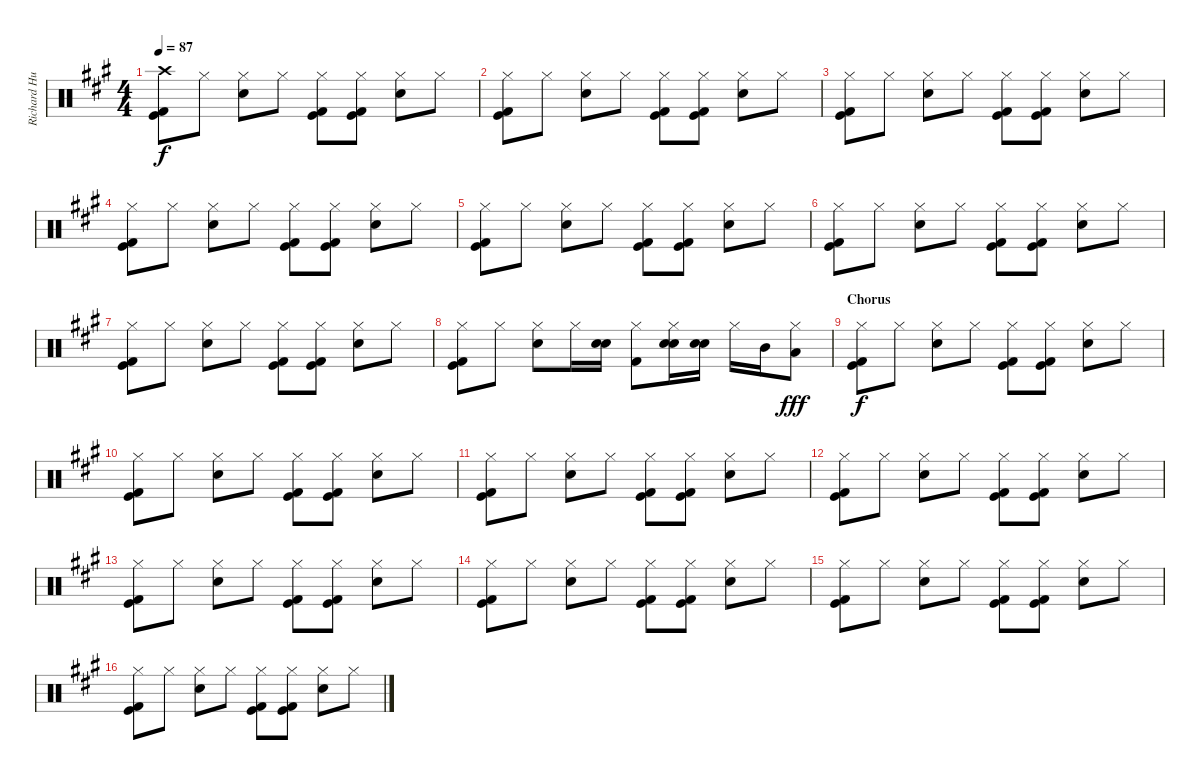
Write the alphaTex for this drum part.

\track ("Richard Hughes (Drums)" "Richard Hu") {instrument percussion}
\staff {score}
\articulation defaults
\ts (4 4)
\tempo 87
\clef neutral
\ks a
("Crash high (hit)" "Kick (hit) 2" "Kick (hit)").8{dy f} "Hi-Hat (closed)".8 ("Hi-Hat (closed)" "Snare (hit) 2").8 "Hi-Hat (closed)".8 ("Hi-Hat (closed)" "Kick (hit) 2" "Kick (hit)").8 ("Hi-Hat (closed)" "Kick (hit) 2" "Kick (hit)").8 ("Hi-Hat (closed)" "Snare (hit) 2").8 "Hi-Hat (closed)".8 |
("Hi-Hat (closed)" "Kick (hit) 2" "Kick (hit)").8 "Hi-Hat (closed)".8 ("Hi-Hat (closed)" "Snare (hit) 2").8 "Hi-Hat (closed)".8 ("Hi-Hat (closed)" "Kick (hit) 2" "Kick (hit)").8 ("Hi-Hat (closed)" "Kick (hit) 2" "Kick (hit)").8 ("Hi-Hat (closed)" "Snare (hit) 2").8 "Hi-Hat (closed)".8 |
("Hi-Hat (closed)" "Kick (hit) 2" "Kick (hit)").8 "Hi-Hat (closed)".8 ("Hi-Hat (closed)" "Snare (hit) 2").8 "Hi-Hat (closed)".8 ("Hi-Hat (closed)" "Kick (hit) 2" "Kick (hit)").8 ("Hi-Hat (closed)" "Kick (hit) 2" "Kick (hit)").8 ("Hi-Hat (closed)" "Snare (hit) 2").8 "Hi-Hat (closed)".8 |
("Hi-Hat (closed)" "Kick (hit) 2" "Kick (hit)").8 "Hi-Hat (closed)".8 ("Hi-Hat (closed)" "Snare (hit) 2").8 "Hi-Hat (closed)".8 ("Hi-Hat (closed)" "Kick (hit) 2" "Kick (hit)").8 ("Hi-Hat (closed)" "Kick (hit) 2" "Kick (hit)").8 ("Hi-Hat (closed)" "Snare (hit) 2").8 "Hi-Hat (closed)".8 |
("Hi-Hat (closed)" "Kick (hit) 2" "Kick (hit)").8 "Hi-Hat (closed)".8 ("Hi-Hat (closed)" "Snare (hit) 2").8 "Hi-Hat (closed)".8 ("Hi-Hat (closed)" "Kick (hit) 2" "Kick (hit)").8 ("Hi-Hat (closed)" "Kick (hit) 2" "Kick (hit)").8 ("Hi-Hat (closed)" "Snare (hit) 2").8 "Hi-Hat (closed)".8 |
("Hi-Hat (closed)" "Kick (hit) 2" "Kick (hit)").8 "Hi-Hat (closed)".8 ("Hi-Hat (closed)" "Snare (hit) 2").8 "Hi-Hat (closed)".8 ("Hi-Hat (closed)" "Kick (hit) 2" "Kick (hit)").8 ("Hi-Hat (closed)" "Kick (hit) 2" "Kick (hit)").8 ("Hi-Hat (closed)" "Snare (hit) 2").8 "Hi-Hat (closed)".8 |
("Hi-Hat (closed)" "Kick (hit) 2" "Kick (hit)").8 "Hi-Hat (closed)".8 ("Hi-Hat (closed)" "Snare (hit) 2").8 "Hi-Hat (closed)".8 ("Hi-Hat (closed)" "Kick (hit) 2" "Kick (hit)").8 ("Hi-Hat (closed)" "Kick (hit) 2" "Kick (hit)").8 ("Hi-Hat (closed)" "Snare (hit) 2").8 "Hi-Hat (closed)".8 |
("Hi-Hat (closed)" "Kick (hit) 2" "Kick (hit)").8 "Hi-Hat (closed)".8 ("Hi-Hat (closed)" "Snare (hit) 2").8 "Hi-Hat (closed)".16 ("Snare (hit) 2" "Electric Snare (hit)").16 ("Hi-Hat (closed)" "Kick (hit) 2").8 ("Hi-Hat (closed)" "Snare (hit) 2" "Electric Snare (hit)").16 ("Snare (hit) 2" "Electric Snare (hit)").16 "Hi-Hat (closed)".16 "Mid Tom (hit)".16 ("Hi-Hat (closed)" "Low Tom (hit)").8{dy fff} |
\section ("" "Chorus")
("Hi-Hat (closed)" "Kick (hit) 2" "Kick (hit)").8{dy f} "Hi-Hat (closed)".8 ("Hi-Hat (closed)" "Snare (hit) 2").8 "Hi-Hat (closed)".8 ("Hi-Hat (closed)" "Kick (hit) 2" "Kick (hit)").8 ("Hi-Hat (closed)" "Kick (hit) 2" "Kick (hit)").8 ("Hi-Hat (closed)" "Snare (hit) 2").8 "Hi-Hat (closed)".8 |
("Hi-Hat (closed)" "Kick (hit) 2" "Kick (hit)").8 "Hi-Hat (closed)".8 ("Hi-Hat (closed)" "Snare (hit) 2").8 "Hi-Hat (closed)".8 ("Hi-Hat (closed)" "Kick (hit) 2" "Kick (hit)").8 ("Hi-Hat (closed)" "Kick (hit) 2" "Kick (hit)").8 ("Hi-Hat (closed)" "Snare (hit) 2").8 "Hi-Hat (closed)".8 |
("Hi-Hat (closed)" "Kick (hit) 2" "Kick (hit)").8 "Hi-Hat (closed)".8 ("Hi-Hat (closed)" "Snare (hit) 2").8 "Hi-Hat (closed)".8 ("Hi-Hat (closed)" "Kick (hit) 2" "Kick (hit)").8 ("Hi-Hat (closed)" "Kick (hit) 2" "Kick (hit)").8 ("Hi-Hat (closed)" "Snare (hit) 2").8 "Hi-Hat (closed)".8 |
("Hi-Hat (closed)" "Kick (hit) 2" "Kick (hit)").8 "Hi-Hat (closed)".8 ("Hi-Hat (closed)" "Snare (hit) 2").8 "Hi-Hat (closed)".8 ("Hi-Hat (closed)" "Kick (hit) 2" "Kick (hit)").8 ("Hi-Hat (closed)" "Kick (hit) 2" "Kick (hit)").8 ("Hi-Hat (closed)" "Snare (hit) 2").8 "Hi-Hat (closed)".8 |
("Hi-Hat (closed)" "Kick (hit) 2" "Kick (hit)").8 "Hi-Hat (closed)".8 ("Hi-Hat (closed)" "Snare (hit) 2").8 "Hi-Hat (closed)".8 ("Hi-Hat (closed)" "Kick (hit) 2" "Kick (hit)").8 ("Hi-Hat (closed)" "Kick (hit) 2" "Kick (hit)").8 ("Hi-Hat (closed)" "Snare (hit) 2").8 "Hi-Hat (closed)".8 |
("Hi-Hat (closed)" "Kick (hit) 2" "Kick (hit)").8 "Hi-Hat (closed)".8 ("Hi-Hat (closed)" "Snare (hit) 2").8 "Hi-Hat (closed)".8 ("Hi-Hat (closed)" "Kick (hit) 2" "Kick (hit)").8 ("Hi-Hat (closed)" "Kick (hit) 2" "Kick (hit)").8 ("Hi-Hat (closed)" "Snare (hit) 2").8 "Hi-Hat (closed)".8 |
("Hi-Hat (closed)" "Kick (hit) 2" "Kick (hit)").8 "Hi-Hat (closed)".8 ("Hi-Hat (closed)" "Snare (hit) 2").8 "Hi-Hat (closed)".8 ("Hi-Hat (closed)" "Kick (hit) 2" "Kick (hit)").8 ("Hi-Hat (closed)" "Kick (hit) 2" "Kick (hit)").8 ("Hi-Hat (closed)" "Snare (hit) 2").8 "Hi-Hat (closed)".8 |
("Hi-Hat (closed)" "Kick (hit) 2" "Kick (hit)").8 "Hi-Hat (closed)".8 ("Hi-Hat (closed)" "Snare (hit) 2").8 "Hi-Hat (closed)".8 ("Hi-Hat (closed)" "Kick (hit) 2" "Kick (hit)").8 ("Hi-Hat (closed)" "Kick (hit) 2" "Kick (hit)").8 ("Hi-Hat (closed)" "Snare (hit) 2").8 "Hi-Hat (closed)".8
